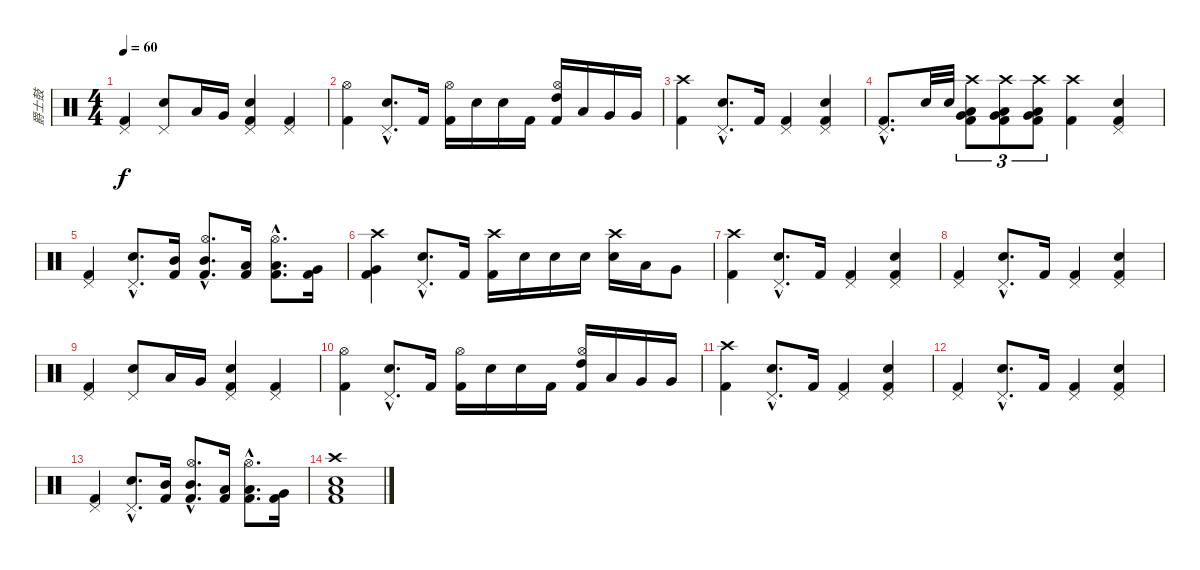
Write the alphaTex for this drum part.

\track ("爵士鼓" "爵士鼓") {instrument percussion}
\staff {score}
\articulation defaults
\ts (4 4)
\tempo 60
\clef neutral
\ks c
("Pedal Hi-Hat (hit)" "Kick (hit) 2").4{dy f} ("Pedal Hi-Hat (hit)" "Snare (hit) 2").8 "Low Tom (hit)".16 "Very Low Tom (hit)".16 ("Pedal Hi-Hat (hit)" "Snare (hit) 2" "Kick (hit) 2").4 ("Pedal Hi-Hat (hit)" "Kick (hit) 2").4 |
("Hi-Hat (open)" "Kick (hit) 2").4 ("Pedal Hi-Hat (hit)"{hac} "Snare (hit) 2"{hac}).8{d} "Kick (hit) 2".16 ("Hi-Hat (open)" "Kick (hit) 2").16 "Snare (hit) 2".16 "Snare (hit) 2".16 "Kick (hit) 2".16 ("Hi-Hat (open)" "High Tom (hit)" "Kick (hit) 2").16 "Low Tom (hit)".16 "Very Low Tom (hit)".16 "Very Low Tom (hit)".16 |
("Crash high (hit)" "Kick (hit) 2").4 ("Pedal Hi-Hat (hit)"{hac} "Snare (hit) 2"{hac}).8{d} "Kick (hit) 2".16 ("Pedal Hi-Hat (hit)" "Kick (hit) 2").4 ("Pedal Hi-Hat (hit)" "Snare (hit) 2" "Kick (hit) 2").4 |
("Pedal Hi-Hat (hit)"{hac} "Kick (hit) 2"{hac}).8{d} "Snare (hit) 2".32 "Snare (hit) 2".32 ("Crash high (hit)" "Very Low Tom (hit)" "Low Tom (hit)" "Kick (hit) 2").8{tu (3 2)} ("Crash high (hit)" "Very Low Tom (hit)" "Low Tom (hit)" "Kick (hit) 2").8{tu (3 2)} ("Crash high (hit)" "Very Low Tom (hit)" "Low Tom (hit)" "Kick (hit) 2").8{tu (3 2)} ("Crash high (hit)" "Kick (hit) 2").4 ("Pedal Hi-Hat (hit)" "Snare (hit) 2" "Kick (hit) 2").4 |
("Pedal Hi-Hat (hit)" "Kick (hit) 2").4 ("Pedal Hi-Hat (hit)"{hac} "Snare (hit) 2"{hac}).8{d} ("Mid Tom (hit)" "Kick (hit) 2").16 ("Hi-Hat (open)"{hac} "Mid Tom (hit)"{hac} "Kick (hit) 2"{hac}).8{d} ("Low Tom (hit)" "Kick (hit) 2").16 ("Hi-Hat (open)"{hac} "Low Tom (hit)"{hac} "Kick (hit) 2"{hac}).8{d} ("Very Low Tom (hit)" "Kick (hit) 2").16 |
("Crash high (hit)" "Very Low Tom (hit)" "Kick (hit) 2").4 ("Pedal Hi-Hat (hit)"{hac} "Snare (hit) 2"{hac}).8{d} "Kick (hit) 2".16 ("Crash high (hit)" "Kick (hit) 2").16 "Snare (hit) 2".16 "Snare (hit) 2".16 "Snare (hit) 2".16 ("Crash high (hit)" "Snare (hit) 2").16 "Low Tom (hit)".16 "Very Low Tom (hit)".8 |
("Crash high (hit)" "Kick (hit) 2").4 ("Pedal Hi-Hat (hit)"{hac} "Snare (hit) 2"{hac}).8{d} "Kick (hit) 2".16 ("Pedal Hi-Hat (hit)" "Kick (hit) 2").4 ("Pedal Hi-Hat (hit)" "Snare (hit) 2" "Kick (hit) 2").4 |
("Pedal Hi-Hat (hit)" "Kick (hit) 2").4 ("Pedal Hi-Hat (hit)"{hac} "Snare (hit) 2"{hac}).8{d} "Kick (hit) 2".16 ("Pedal Hi-Hat (hit)" "Kick (hit) 2").4 ("Pedal Hi-Hat (hit)" "Snare (hit) 2" "Kick (hit) 2").4 |
("Pedal Hi-Hat (hit)" "Kick (hit) 2").4 ("Pedal Hi-Hat (hit)" "Snare (hit) 2").8 "Low Tom (hit)".16 "Very Low Tom (hit)".16 ("Pedal Hi-Hat (hit)" "Snare (hit) 2" "Kick (hit) 2").4 ("Pedal Hi-Hat (hit)" "Kick (hit) 2").4 |
("Hi-Hat (open)" "Kick (hit) 2").4 ("Pedal Hi-Hat (hit)"{hac} "Snare (hit) 2"{hac}).8{d} "Kick (hit) 2".16 ("Hi-Hat (open)" "Kick (hit) 2").16 "Snare (hit) 2".16 "Snare (hit) 2".16 "Kick (hit) 2".16 ("Hi-Hat (open)" "High Tom (hit)" "Kick (hit) 2").16 "Low Tom (hit)".16 "Very Low Tom (hit)".16 "Very Low Tom (hit)".16 |
("Crash high (hit)" "Kick (hit) 2").4 ("Pedal Hi-Hat (hit)"{hac} "Snare (hit) 2"{hac}).8{d} "Kick (hit) 2".16 ("Pedal Hi-Hat (hit)" "Kick (hit) 2").4 ("Pedal Hi-Hat (hit)" "Snare (hit) 2" "Kick (hit) 2").4 |
("Pedal Hi-Hat (hit)" "Kick (hit) 2").4 ("Pedal Hi-Hat (hit)"{hac} "Snare (hit) 2"{hac}).8{d} "Kick (hit) 2".16 ("Pedal Hi-Hat (hit)" "Kick (hit) 2").4 ("Pedal Hi-Hat (hit)" "Snare (hit) 2" "Kick (hit) 2").4 |
("Pedal Hi-Hat (hit)" "Kick (hit) 2").4 ("Pedal Hi-Hat (hit)"{hac} "Snare (hit) 2"{hac}).8{d} ("Mid Tom (hit)" "Kick (hit) 2").16 ("Hi-Hat (open)"{hac} "Mid Tom (hit)"{hac} "Kick (hit) 2"{hac}).8{d} ("Low Tom (hit)" "Kick (hit) 2").16 ("Hi-Hat (open)"{hac} "Low Tom (hit)"{hac} "Kick (hit) 2"{hac}).8{d} ("Very Low Tom (hit)" "Kick (hit) 2").16 |
("Crash high (hit)" "Low Tom (hit)" "Snare (hit) 2" "Kick (hit) 2").1
